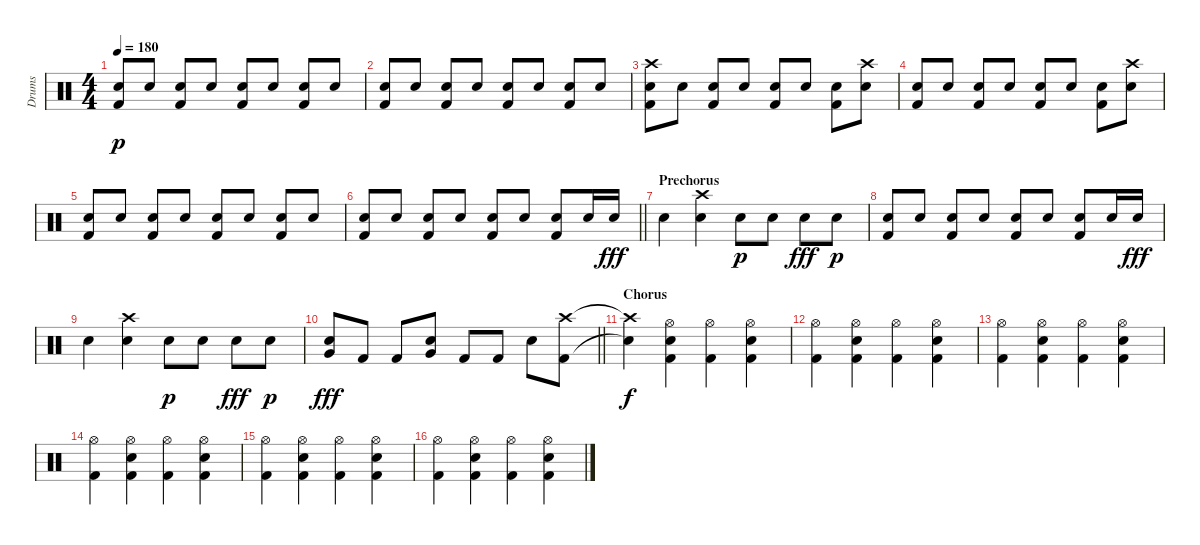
\track ("Drums" "Drums") {instrument percussion}
\staff {score}
\articulation defaults
\ts (4 4)
\tempo 180
\clef neutral
\ks c
("Electric Snare (hit)" "Kick (hit) 2").8{dy p} "Electric Snare (hit)".8 ("Electric Snare (hit)" "Kick (hit) 2").8 "Electric Snare (hit)".8 ("Electric Snare (hit)" "Kick (hit) 2").8 "Electric Snare (hit)".8 ("Electric Snare (hit)" "Kick (hit) 2").8 "Electric Snare (hit)".8 |
("Electric Snare (hit)" "Kick (hit) 2").8 "Electric Snare (hit)".8 ("Electric Snare (hit)" "Kick (hit) 2").8 "Electric Snare (hit)".8 ("Electric Snare (hit)" "Kick (hit) 2").8 "Electric Snare (hit)".8 ("Electric Snare (hit)" "Kick (hit) 2").8 "Electric Snare (hit)".8 |
("Crash high (hit)" "Electric Snare (hit)" "Kick (hit) 2").8 "Electric Snare (hit)".8 ("Electric Snare (hit)" "Kick (hit) 2").8 "Electric Snare (hit)".8 ("Electric Snare (hit)" "Kick (hit) 2").8 "Electric Snare (hit)".8 ("Electric Snare (hit)" "Kick (hit) 2").8 ("Crash high (hit)" "Electric Snare (hit)").8 |
("Electric Snare (hit)" "Kick (hit) 2").8 "Electric Snare (hit)".8 ("Electric Snare (hit)" "Kick (hit) 2").8 "Electric Snare (hit)".8 ("Electric Snare (hit)" "Kick (hit) 2").8 "Electric Snare (hit)".8 ("Electric Snare (hit)" "Kick (hit) 2").8 ("Crash high (hit)" "Electric Snare (hit)").8 |
("Electric Snare (hit)" "Kick (hit) 2").8 "Electric Snare (hit)".8 ("Electric Snare (hit)" "Kick (hit) 2").8 "Electric Snare (hit)".8 ("Electric Snare (hit)" "Kick (hit) 2").8 "Electric Snare (hit)".8 ("Electric Snare (hit)" "Kick (hit) 2").8 "Electric Snare (hit)".8 |
\barLineRight lightlight
("Electric Snare (hit)" "Kick (hit) 2").8 "Electric Snare (hit)".8 ("Electric Snare (hit)" "Kick (hit) 2").8 "Electric Snare (hit)".8 ("Electric Snare (hit)" "Kick (hit) 2").8 "Electric Snare (hit)".8 ("Electric Snare (hit)" "Kick (hit) 2").8 "Electric Snare (hit)".16 "Electric Snare (hit)".16{dy fff} |
\section ("" "Prechorus")
"Electric Snare (hit)".4 ("Crash high (hit)" "Electric Snare (hit)").4 "Electric Snare (hit)".8{dy p} "Electric Snare (hit)".8 "Electric Snare (hit)".8{dy fff} "Electric Snare (hit)".8{dy p} |
("Electric Snare (hit)" "Kick (hit) 2").8 "Electric Snare (hit)".8 ("Electric Snare (hit)" "Kick (hit) 2").8 "Electric Snare (hit)".8 ("Electric Snare (hit)" "Kick (hit) 2").8 "Electric Snare (hit)".8 ("Electric Snare (hit)" "Kick (hit) 2").8 "Electric Snare (hit)".16 "Electric Snare (hit)".16{dy fff} |
"Electric Snare (hit)".4 ("Crash high (hit)" "Electric Snare (hit)").4 "Electric Snare (hit)".8{dy p} "Electric Snare (hit)".8 "Electric Snare (hit)".8{dy fff} "Electric Snare (hit)".8{dy p} |
\barLineRight lightlight
("Electric Snare (hit)" "Very Low Tom (hit)").8{dy fff} "Kick (hit) 2".8 "Kick (hit) 2".8 ("Electric Snare (hit)" "Very Low Tom (hit)").8 "Kick (hit) 2".8 "Kick (hit) 2".8 "Electric Snare (hit)".8 ("Crash high (hit)" "Kick (hit) 2").8 |
\section ("" "Chorus")
("Crash high (hit)"{t} "Snare (hit)"{t}).4{dy f} ("Hi-Hat (open)" "Electric Snare (hit)" "Kick (hit) 2").4 ("Hi-Hat (open)" "Kick (hit) 2").4 ("Hi-Hat (open)" "Electric Snare (hit)" "Kick (hit) 2").4 |
("Hi-Hat (open)" "Kick (hit) 2").4 ("Hi-Hat (open)" "Electric Snare (hit)" "Kick (hit) 2").4 ("Hi-Hat (open)" "Kick (hit) 2").4 ("Hi-Hat (open)" "Electric Snare (hit)" "Kick (hit) 2").4 |
("Hi-Hat (open)" "Kick (hit) 2").4 ("Hi-Hat (open)" "Electric Snare (hit)" "Kick (hit) 2").4 ("Hi-Hat (open)" "Kick (hit) 2").4 ("Hi-Hat (open)" "Electric Snare (hit)" "Kick (hit) 2").4 |
("Hi-Hat (open)" "Kick (hit) 2").4 ("Hi-Hat (open)" "Electric Snare (hit)" "Kick (hit) 2").4 ("Hi-Hat (open)" "Kick (hit) 2").4 ("Hi-Hat (open)" "Electric Snare (hit)" "Kick (hit) 2").4 |
("Hi-Hat (open)" "Kick (hit) 2").4 ("Hi-Hat (open)" "Electric Snare (hit)" "Kick (hit) 2").4 ("Hi-Hat (open)" "Kick (hit) 2").4 ("Hi-Hat (open)" "Electric Snare (hit)" "Kick (hit) 2").4 |
("Hi-Hat (open)" "Kick (hit) 2").4 ("Hi-Hat (open)" "Electric Snare (hit)" "Kick (hit) 2").4 ("Hi-Hat (open)" "Kick (hit) 2").4 ("Hi-Hat (open)" "Electric Snare (hit)" "Kick (hit) 2").4
